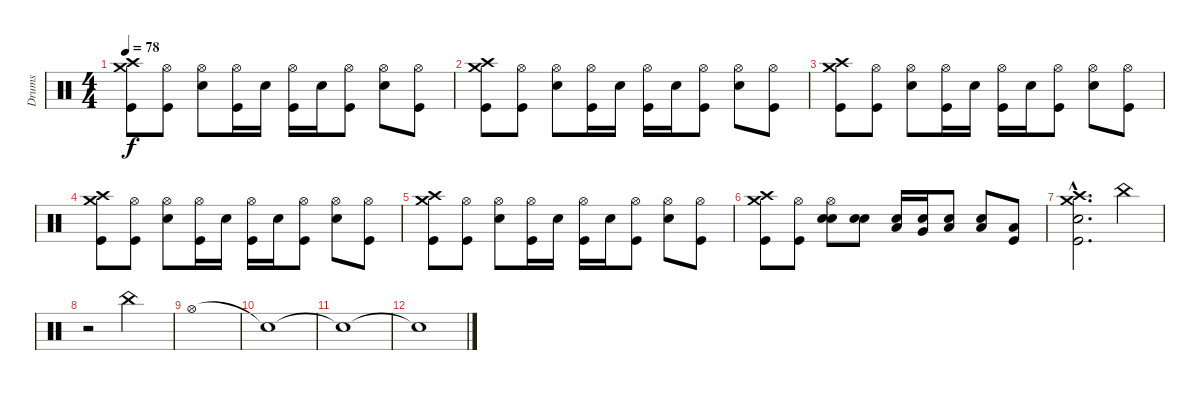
\track ("Drums" "Drums") {instrument percussion}
\staff {score}
\articulation defaults
\ts (4 4)
\tempo 78
\clef neutral
\ks c
("Crash high (hit)" "Crash medium (hit)" "Kick (hit)").8{dy f} ("Hi-Hat (open)" "Kick (hit)").8 ("Electric Snare (hit)" "Hi-Hat (open)").8 ("Hi-Hat (open)" "Kick (hit)").16 "Electric Snare (hit)".16 ("Hi-Hat (open)" "Kick (hit)").16 "Electric Snare (hit)".16 ("Hi-Hat (open)" "Kick (hit)").8 ("Electric Snare (hit)" "Hi-Hat (open)").8 ("Hi-Hat (open)" "Kick (hit)").8 |
("Crash high (hit)" "Crash medium (hit)" "Kick (hit)").8 ("Hi-Hat (open)" "Kick (hit)").8 ("Electric Snare (hit)" "Hi-Hat (open)").8 ("Hi-Hat (open)" "Kick (hit)").16 "Electric Snare (hit)".16 ("Hi-Hat (open)" "Kick (hit)").16 "Electric Snare (hit)".16 ("Hi-Hat (open)" "Kick (hit)").8 ("Electric Snare (hit)" "Hi-Hat (open)").8 ("Hi-Hat (open)" "Kick (hit)").8 |
("Crash high (hit)" "Crash medium (hit)" "Kick (hit)").8 ("Hi-Hat (open)" "Kick (hit)").8 ("Electric Snare (hit)" "Hi-Hat (open)").8 ("Hi-Hat (open)" "Kick (hit)").16 "Electric Snare (hit)".16 ("Hi-Hat (open)" "Kick (hit)").16 "Electric Snare (hit)".16 ("Hi-Hat (open)" "Kick (hit)").8 ("Electric Snare (hit)" "Hi-Hat (open)").8 ("Hi-Hat (open)" "Kick (hit)").8 |
("Crash high (hit)" "Crash medium (hit)" "Kick (hit)").8 ("Hi-Hat (open)" "Kick (hit)").8 ("Electric Snare (hit)" "Hi-Hat (open)").8 ("Hi-Hat (open)" "Kick (hit)").16 "Electric Snare (hit)".16 ("Hi-Hat (open)" "Kick (hit)").16 "Electric Snare (hit)".16 ("Hi-Hat (open)" "Kick (hit)").8 ("Electric Snare (hit)" "Hi-Hat (open)").8 ("Hi-Hat (open)" "Kick (hit)").8 |
("Crash high (hit)" "Crash medium (hit)" "Kick (hit)").8 ("Hi-Hat (open)" "Kick (hit)").8 ("Electric Snare (hit)" "Hi-Hat (open)").8 ("Hi-Hat (open)" "Kick (hit)").16 "Electric Snare (hit)".16 ("Hi-Hat (open)" "Kick (hit)").16 "Electric Snare (hit)".16 ("Hi-Hat (open)" "Kick (hit)").8 ("Electric Snare (hit)" "Hi-Hat (open)").8 ("Hi-Hat (open)" "Kick (hit)").8 |
("Crash high (hit)" "Crash medium (hit)" "Kick (hit)").8 ("Hi-Hat (open)" "Kick (hit)").8 ("Electric Snare (hit)" "Snare (hit) 2" "Hi-Hat (open)").8 ("Electric Snare (hit)" "Snare (hit) 2").8 ("Low Tom (hit)" "Snare (hit) 2").16 ("Very Low Tom (hit)" "Snare (hit) 2").16 ("Low Floor Tom (hit)" "Snare (hit) 2").8 ("Low Floor Tom (hit)" "Snare (hit) 2").8 ("Low Floor Tom (hit)" "Kick (hit)").8 |
("Crash high (hit)"{hac} "Crash medium (hit)"{hac} "Electric Snare (hit)"{hac} "Kick (hit)"{hac}).2{d} "China (hit)".4 |
r.2 "China (hit)".2 |
"Hi-Hat (open)".1 |
"Snare (hit)"{t}.1 |
"Snare (hit)"{t}.1 |
"Snare (hit)"{t}.1
